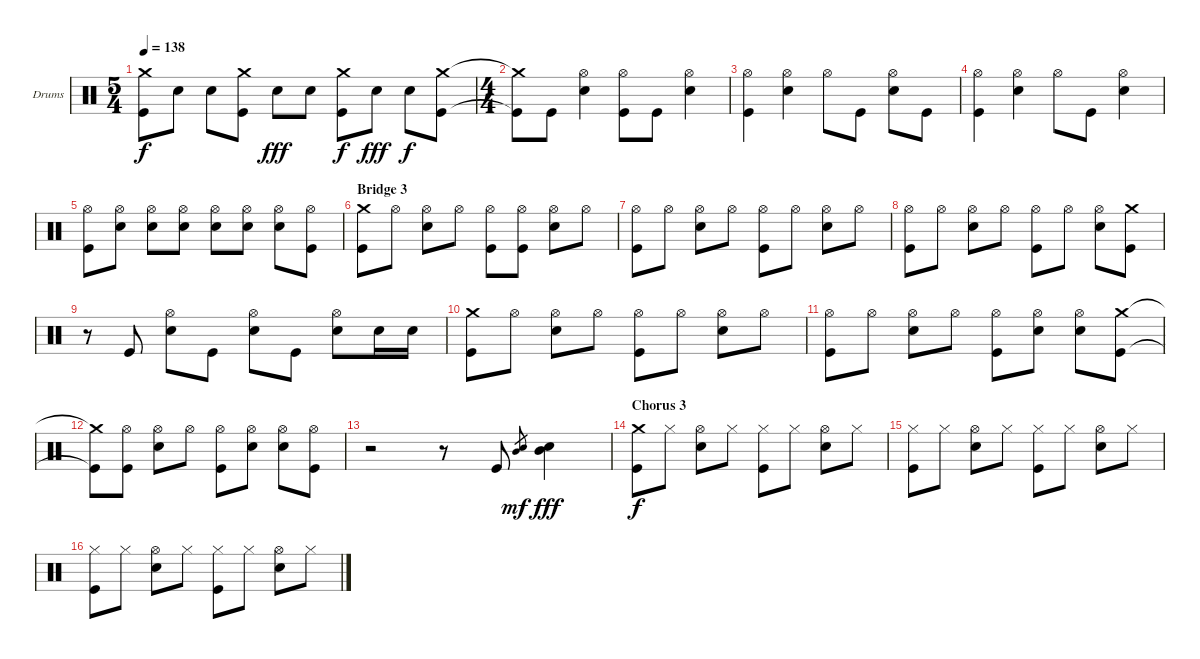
\bracketExtendMode groupsimilarinstruments
\firstSystemTrackNameOrientation horizontal
\otherSystemsTrackNameOrientation horizontal
\track ("Drumkit" "Drums") {instrument percussion}
\staff {score}
\articulation defaults
\ts (5 4)
\tempo 138
\clef neutral
\ks c
("Crash medium (hit)" "Kick (hit)").8{dy f} "Snare (hit) 2".8 "Snare (hit) 2".8 ("Crash medium (hit)" "Kick (hit)").8 "Snare (hit) 2".8{dy fff} "Snare (hit) 2".8 ("Crash medium (hit)" "Kick (hit)").8{dy f} "Snare (hit) 2".8{dy fff} "Snare (hit) 2".8{dy f} ("Crash medium (hit)" "Kick (hit)").8 |
\ts (4 4)
("Crash medium (hit)"{t} "Kick (hit)"{t}).8 "Kick (hit)".8 ("Hi-Hat (open)" "Snare (hit) 2").4 ("Hi-Hat (open)" "Kick (hit)").8 "Kick (hit)".8 ("Hi-Hat (open)" "Snare (hit) 2").4 |
("Hi-Hat (open)" "Kick (hit)").4 ("Hi-Hat (open)" "Snare (hit) 2").4 "Hi-Hat (open)".8 "Kick (hit)".8 ("Hi-Hat (open)" "Snare (hit) 2").8 "Kick (hit)".8 |
("Hi-Hat (open)" "Kick (hit)").4 ("Hi-Hat (open)" "Snare (hit) 2").4 "Hi-Hat (open)".8 "Kick (hit)".8 ("Hi-Hat (open)" "Snare (hit) 2").4 |
("Hi-Hat (open)" "Kick (hit)").8 ("Hi-Hat (open)" "Snare (hit) 2").8 ("Hi-Hat (open)" "Snare (hit) 2").8 ("Hi-Hat (open)" "Snare (hit) 2").8 ("Hi-Hat (open)" "Snare (hit) 2").8 ("Hi-Hat (open)" "Snare (hit) 2").8 ("Hi-Hat (open)" "Snare (hit) 2").8 ("Hi-Hat (open)" "Kick (hit)").8 |
\section ("" "Bridge 3")
("Crash medium (hit)" "Kick (hit)").8 "Hi-Hat (open)".8 ("Hi-Hat (open)" "Snare (hit) 2").8 "Hi-Hat (open)".8 ("Hi-Hat (open)" "Kick (hit)").8 ("Hi-Hat (open)" "Kick (hit)").8 ("Hi-Hat (open)" "Snare (hit) 2").8 "Hi-Hat (open)".8 |
("Hi-Hat (open)" "Kick (hit)").8 "Hi-Hat (open)".8 ("Hi-Hat (open)" "Snare (hit) 2").8 "Hi-Hat (open)".8 ("Hi-Hat (open)" "Kick (hit)").8 "Hi-Hat (open)".8 ("Hi-Hat (open)" "Snare (hit) 2").8 "Hi-Hat (open)".8 |
("Hi-Hat (open)" "Kick (hit)").8 "Hi-Hat (open)".8 ("Hi-Hat (open)" "Snare (hit) 2").8 "Hi-Hat (open)".8 ("Hi-Hat (open)" "Kick (hit)").8 "Hi-Hat (open)".8 ("Hi-Hat (open)" "Snare (hit) 2").8 ("Crash medium (hit)" "Kick (hit)").8 |
r.8 "Kick (hit)".8 ("Hi-Hat (open)" "Snare (hit) 2").8 "Kick (hit)".8 ("Hi-Hat (open)" "Snare (hit) 2").8 "Kick (hit)".8 ("Hi-Hat (open)" "Snare (hit) 2").8 "Snare (hit) 2".16 "Snare (hit) 2".16 |
("Crash medium (hit)" "Kick (hit)").8 "Hi-Hat (open)".8 ("Hi-Hat (open)" "Snare (hit) 2").8 "Hi-Hat (open)".8 ("Hi-Hat (open)" "Kick (hit)").8 "Hi-Hat (open)".8 ("Hi-Hat (open)" "Snare (hit) 2").8 "Hi-Hat (open)".8 |
("Hi-Hat (open)" "Kick (hit)").8 "Hi-Hat (open)".8 ("Hi-Hat (open)" "Snare (hit) 2").8 "Hi-Hat (open)".8 ("Hi-Hat (open)" "Kick (hit)").8 ("Hi-Hat (open)" "Snare (hit) 2").8 ("Hi-Hat (open)" "Snare (hit) 2").8 ("Crash medium (hit)" "Kick (hit)").8 |
("Crash medium (hit)"{t} "Kick (hit)"{t}).8 ("Hi-Hat (open)" "Kick (hit)").8 ("Hi-Hat (open)" "Snare (hit) 2").8 "Hi-Hat (open)".8 ("Hi-Hat (open)" "Kick (hit)").8 ("Hi-Hat (open)" "Snare (hit) 2").8 ("Hi-Hat (open)" "Snare (hit) 2").8 ("Hi-Hat (open)" "Kick (hit)").8 |
r.2 r.8 "Kick (hit)".8 ("Snare (hit) 2" "Mid Tom (hit)").8{gr dy mf} ("Snare (hit) 2" "Mid Tom (hit)").4{dy fff} |
\section ("" "Chorus 3")
("Crash medium (hit)" "Kick (hit)").8{dy f} "Hi-Hat (closed)".8 ("Hi-Hat (open)" "Snare (hit) 2").8 "Hi-Hat (closed)".8 ("Hi-Hat (closed)" "Kick (hit)").8 "Hi-Hat (closed)".8 ("Hi-Hat (open)" "Snare (hit) 2").8 "Hi-Hat (closed)".8 |
("Hi-Hat (closed)" "Kick (hit)").8 "Hi-Hat (closed)".8 ("Hi-Hat (open)" "Snare (hit) 2").8 "Hi-Hat (closed)".8 ("Hi-Hat (closed)" "Kick (hit)").8 "Hi-Hat (closed)".8 ("Hi-Hat (open)" "Snare (hit) 2").8 "Hi-Hat (closed)".8 |
("Hi-Hat (closed)" "Kick (hit)").8 "Hi-Hat (closed)".8 ("Hi-Hat (open)" "Snare (hit) 2").8 "Hi-Hat (closed)".8 ("Hi-Hat (closed)" "Kick (hit)").8 "Hi-Hat (closed)".8 ("Hi-Hat (open)" "Snare (hit) 2").8 "Hi-Hat (closed)".8
